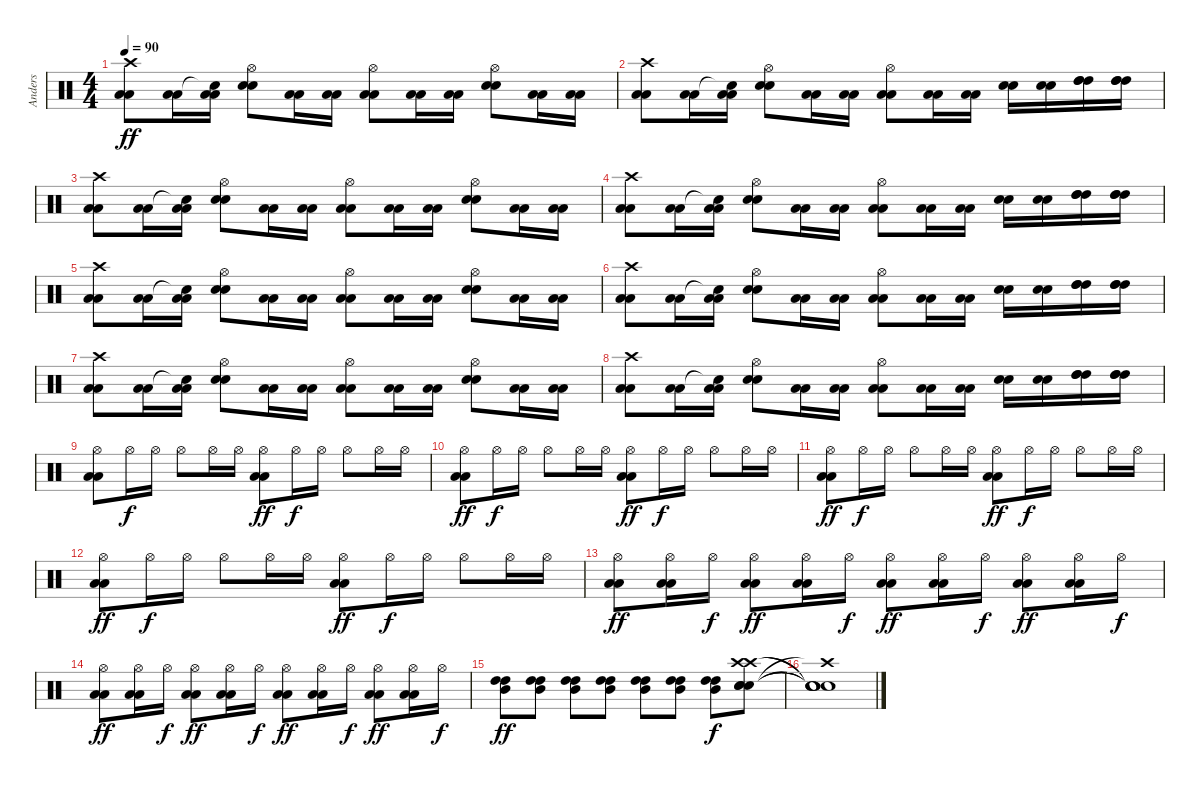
\track ("Anders" "Anders") {instrument percussion}
\staff {score}
\articulation defaults
\ts (4 4)
\tempo 90
\clef neutral
\ks c
("Crash high (hit)" "Low Floor Tom (hit)" "Low Floor Tom (hit)").8{dy ff} ("Low Floor Tom (hit)" "Low Floor Tom (hit)").16 ("Snare (hit)"{t} "Low Floor Tom (hit)" "Low Floor Tom (hit)").16 ("Hi-Hat (open)" "Electric Snare (hit)" "Electric Snare (hit)").8 ("Low Floor Tom (hit)" "Low Floor Tom (hit)").16 ("Low Floor Tom (hit)" "Low Floor Tom (hit)").16 ("Hi-Hat (open)" "Low Floor Tom (hit)" "Low Floor Tom (hit)").8 ("Low Floor Tom (hit)" "Low Floor Tom (hit)").16 ("Low Floor Tom (hit)" "Low Floor Tom (hit)").16 ("Hi-Hat (open)" "Electric Snare (hit)" "Electric Snare (hit)").8 ("Low Floor Tom (hit)" "Low Floor Tom (hit)").16 ("Low Floor Tom (hit)" "Low Floor Tom (hit)").16 |
("Crash high (hit)" "Low Floor Tom (hit)" "Low Floor Tom (hit)").8 ("Low Floor Tom (hit)" "Low Floor Tom (hit)").16 ("Snare (hit)"{t} "Low Floor Tom (hit)" "Low Floor Tom (hit)").16 ("Hi-Hat (open)" "Electric Snare (hit)" "Electric Snare (hit)").8 ("Low Floor Tom (hit)" "Low Floor Tom (hit)").16 ("Low Floor Tom (hit)" "Low Floor Tom (hit)").16 ("Hi-Hat (open)" "Low Floor Tom (hit)" "Low Floor Tom (hit)").8 ("Low Floor Tom (hit)" "Low Floor Tom (hit)").16 ("Low Floor Tom (hit)" "Low Floor Tom (hit)").16 ("Electric Snare (hit)" "Electric Snare (hit)").16 ("Electric Snare (hit)" "Electric Snare (hit)").16 ("High Tom (hit)" "High Tom (hit)" "High Tom (hit)").16 ("High Tom (hit)" "High Tom (hit)" "High Tom (hit)").16 |
("Crash high (hit)" "Low Floor Tom (hit)" "Low Floor Tom (hit)").8 ("Low Floor Tom (hit)" "Low Floor Tom (hit)").16 ("Snare (hit)"{t} "Low Floor Tom (hit)" "Low Floor Tom (hit)").16 ("Hi-Hat (open)" "Electric Snare (hit)" "Electric Snare (hit)").8 ("Low Floor Tom (hit)" "Low Floor Tom (hit)").16 ("Low Floor Tom (hit)" "Low Floor Tom (hit)").16 ("Hi-Hat (open)" "Low Floor Tom (hit)" "Low Floor Tom (hit)").8 ("Low Floor Tom (hit)" "Low Floor Tom (hit)").16 ("Low Floor Tom (hit)" "Low Floor Tom (hit)").16 ("Hi-Hat (open)" "Electric Snare (hit)" "Electric Snare (hit)").8 ("Low Floor Tom (hit)" "Low Floor Tom (hit)").16 ("Low Floor Tom (hit)" "Low Floor Tom (hit)").16 |
("Crash high (hit)" "Low Floor Tom (hit)" "Low Floor Tom (hit)").8 ("Low Floor Tom (hit)" "Low Floor Tom (hit)").16 ("Snare (hit)"{t} "Low Floor Tom (hit)" "Low Floor Tom (hit)").16 ("Hi-Hat (open)" "Electric Snare (hit)" "Electric Snare (hit)").8 ("Low Floor Tom (hit)" "Low Floor Tom (hit)").16 ("Low Floor Tom (hit)" "Low Floor Tom (hit)").16 ("Hi-Hat (open)" "Low Floor Tom (hit)" "Low Floor Tom (hit)").8 ("Low Floor Tom (hit)" "Low Floor Tom (hit)").16 ("Low Floor Tom (hit)" "Low Floor Tom (hit)").16 ("Electric Snare (hit)" "Electric Snare (hit)").16 ("Electric Snare (hit)" "Electric Snare (hit)").16 ("High Tom (hit)" "High Tom (hit)" "High Tom (hit)").16 ("High Tom (hit)" "High Tom (hit)" "High Tom (hit)").16 |
("Crash high (hit)" "Low Floor Tom (hit)" "Low Floor Tom (hit)").8 ("Low Floor Tom (hit)" "Low Floor Tom (hit)").16 ("Snare (hit)"{t} "Low Floor Tom (hit)" "Low Floor Tom (hit)").16 ("Hi-Hat (open)" "Electric Snare (hit)" "Electric Snare (hit)").8 ("Low Floor Tom (hit)" "Low Floor Tom (hit)").16 ("Low Floor Tom (hit)" "Low Floor Tom (hit)").16 ("Hi-Hat (open)" "Low Floor Tom (hit)" "Low Floor Tom (hit)").8 ("Low Floor Tom (hit)" "Low Floor Tom (hit)").16 ("Low Floor Tom (hit)" "Low Floor Tom (hit)").16 ("Hi-Hat (open)" "Electric Snare (hit)" "Electric Snare (hit)").8 ("Low Floor Tom (hit)" "Low Floor Tom (hit)").16 ("Low Floor Tom (hit)" "Low Floor Tom (hit)").16 |
("Crash high (hit)" "Low Floor Tom (hit)" "Low Floor Tom (hit)").8 ("Low Floor Tom (hit)" "Low Floor Tom (hit)").16 ("Snare (hit)"{t} "Low Floor Tom (hit)" "Low Floor Tom (hit)").16 ("Hi-Hat (open)" "Electric Snare (hit)" "Electric Snare (hit)").8 ("Low Floor Tom (hit)" "Low Floor Tom (hit)").16 ("Low Floor Tom (hit)" "Low Floor Tom (hit)").16 ("Hi-Hat (open)" "Low Floor Tom (hit)" "Low Floor Tom (hit)").8 ("Low Floor Tom (hit)" "Low Floor Tom (hit)").16 ("Low Floor Tom (hit)" "Low Floor Tom (hit)").16 ("Electric Snare (hit)" "Electric Snare (hit)").16 ("Electric Snare (hit)" "Electric Snare (hit)").16 ("High Tom (hit)" "High Tom (hit)" "High Tom (hit)").16 ("High Tom (hit)" "High Tom (hit)" "High Tom (hit)").16 |
("Crash high (hit)" "Low Floor Tom (hit)" "Low Floor Tom (hit)").8 ("Low Floor Tom (hit)" "Low Floor Tom (hit)").16 ("Snare (hit)"{t} "Low Floor Tom (hit)" "Low Floor Tom (hit)").16 ("Hi-Hat (open)" "Electric Snare (hit)" "Electric Snare (hit)").8 ("Low Floor Tom (hit)" "Low Floor Tom (hit)").16 ("Low Floor Tom (hit)" "Low Floor Tom (hit)").16 ("Hi-Hat (open)" "Low Floor Tom (hit)" "Low Floor Tom (hit)").8 ("Low Floor Tom (hit)" "Low Floor Tom (hit)").16 ("Low Floor Tom (hit)" "Low Floor Tom (hit)").16 ("Hi-Hat (open)" "Electric Snare (hit)" "Electric Snare (hit)").8 ("Low Floor Tom (hit)" "Low Floor Tom (hit)").16 ("Low Floor Tom (hit)" "Low Floor Tom (hit)").16 |
("Crash high (hit)" "Low Floor Tom (hit)" "Low Floor Tom (hit)").8 ("Low Floor Tom (hit)" "Low Floor Tom (hit)").16 ("Snare (hit)"{t} "Low Floor Tom (hit)" "Low Floor Tom (hit)").16 ("Hi-Hat (open)" "Electric Snare (hit)" "Electric Snare (hit)").8 ("Low Floor Tom (hit)" "Low Floor Tom (hit)").16 ("Low Floor Tom (hit)" "Low Floor Tom (hit)").16 ("Hi-Hat (open)" "Low Floor Tom (hit)" "Low Floor Tom (hit)").8 ("Low Floor Tom (hit)" "Low Floor Tom (hit)").16 ("Low Floor Tom (hit)" "Low Floor Tom (hit)").16 ("Electric Snare (hit)" "Electric Snare (hit)").16 ("Electric Snare (hit)" "Electric Snare (hit)").16 ("High Tom (hit)" "High Tom (hit)" "High Tom (hit)").16 ("High Tom (hit)" "High Tom (hit)" "High Tom (hit)").16 |
("Hi-Hat (open)" "Low Floor Tom (hit)" "Low Floor Tom (hit)").8 "Hi-Hat (open)".16{dy f} "Hi-Hat (open)".16 "Hi-Hat (open)".8 "Hi-Hat (open)".16 "Hi-Hat (open)".16 ("Hi-Hat (open)" "Low Floor Tom (hit)" "Low Floor Tom (hit)").8{dy ff} "Hi-Hat (open)".16{dy f} "Hi-Hat (open)".16 "Hi-Hat (open)".8 "Hi-Hat (open)".16 "Hi-Hat (open)".16 |
("Hi-Hat (open)" "Low Floor Tom (hit)" "Low Floor Tom (hit)").8{dy ff} "Hi-Hat (open)".16{dy f} "Hi-Hat (open)".16 "Hi-Hat (open)".8 "Hi-Hat (open)".16 "Hi-Hat (open)".16 ("Hi-Hat (open)" "Low Floor Tom (hit)" "Low Floor Tom (hit)").8{dy ff} "Hi-Hat (open)".16{dy f} "Hi-Hat (open)".16 "Hi-Hat (open)".8 "Hi-Hat (open)".16 "Hi-Hat (open)".16 |
("Hi-Hat (open)" "Low Floor Tom (hit)" "Low Floor Tom (hit)").8{dy ff} "Hi-Hat (open)".16{dy f} "Hi-Hat (open)".16 "Hi-Hat (open)".8 "Hi-Hat (open)".16 "Hi-Hat (open)".16 ("Hi-Hat (open)" "Low Floor Tom (hit)" "Low Floor Tom (hit)").8{dy ff} "Hi-Hat (open)".16{dy f} "Hi-Hat (open)".16 "Hi-Hat (open)".8 "Hi-Hat (open)".16 "Hi-Hat (open)".16 |
("Hi-Hat (open)" "Low Floor Tom (hit)" "Low Floor Tom (hit)").8{dy ff} "Hi-Hat (open)".16{dy f} "Hi-Hat (open)".16 "Hi-Hat (open)".8 "Hi-Hat (open)".16 "Hi-Hat (open)".16 ("Hi-Hat (open)" "Low Floor Tom (hit)" "Low Floor Tom (hit)").8{dy ff} "Hi-Hat (open)".16{dy f} "Hi-Hat (open)".16 "Hi-Hat (open)".8 "Hi-Hat (open)".16 "Hi-Hat (open)".16 |
("Hi-Hat (open)" "Low Floor Tom (hit)" "Low Floor Tom (hit)").8{dy ff} ("Hi-Hat (open)" "Low Floor Tom (hit)" "Low Floor Tom (hit)").16 "Hi-Hat (open)".16{dy f} ("Hi-Hat (open)" "Low Floor Tom (hit)" "Low Floor Tom (hit)").8{dy ff} ("Hi-Hat (open)" "Low Floor Tom (hit)" "Low Floor Tom (hit)").16 "Hi-Hat (open)".16{dy f} ("Hi-Hat (open)" "Low Floor Tom (hit)" "Low Floor Tom (hit)").8{dy ff} ("Hi-Hat (open)" "Low Floor Tom (hit)" "Low Floor Tom (hit)").16 "Hi-Hat (open)".16{dy f} ("Hi-Hat (open)" "Low Floor Tom (hit)" "Low Floor Tom (hit)").8{dy ff} ("Hi-Hat (open)" "Low Floor Tom (hit)" "Low Floor Tom (hit)").16 "Hi-Hat (open)".16{dy f} |
("Hi-Hat (open)" "Low Floor Tom (hit)" "Low Floor Tom (hit)").8{dy ff} ("Hi-Hat (open)" "Low Floor Tom (hit)" "Low Floor Tom (hit)").16 "Hi-Hat (open)".16{dy f} ("Hi-Hat (open)" "Low Floor Tom (hit)" "Low Floor Tom (hit)").8{dy ff} ("Hi-Hat (open)" "Low Floor Tom (hit)" "Low Floor Tom (hit)").16 "Hi-Hat (open)".16{dy f} ("Hi-Hat (open)" "Low Floor Tom (hit)" "Low Floor Tom (hit)").8{dy ff} ("Hi-Hat (open)" "Low Floor Tom (hit)" "Low Floor Tom (hit)").16 "Hi-Hat (open)".16{dy f} ("Hi-Hat (open)" "Low Floor Tom (hit)" "Low Floor Tom (hit)").8{dy ff} ("Hi-Hat (open)" "Low Floor Tom (hit)" "Low Floor Tom (hit)").16 "Hi-Hat (open)".16{dy f} |
("High Tom (hit)" "Mid Tom (hit)" "High Tom (hit)").8{dy ff} ("High Tom (hit)" "Mid Tom (hit)" "High Tom (hit)").8 ("High Tom (hit)" "Mid Tom (hit)" "High Tom (hit)").8 ("High Tom (hit)" "Mid Tom (hit)" "High Tom (hit)").8 ("High Tom (hit)" "Mid Tom (hit)" "High Tom (hit)").8 ("High Tom (hit)" "Mid Tom (hit)" "High Tom (hit)").8 ("High Tom (hit)" "Mid Tom (hit)" "High Tom (hit)").8{dy f} ("Crash high (hit)" "Crash high (hit)" "Electric Snare (hit)" "Electric Snare (hit)" "Electric Snare (hit)").8 |
("Snare (hit)"{t} "Electric Snare (hit)"{t} "Electric Snare (hit)"{t} "Electric Snare (hit)"{t} "Crash high (hit)"{t}).1
